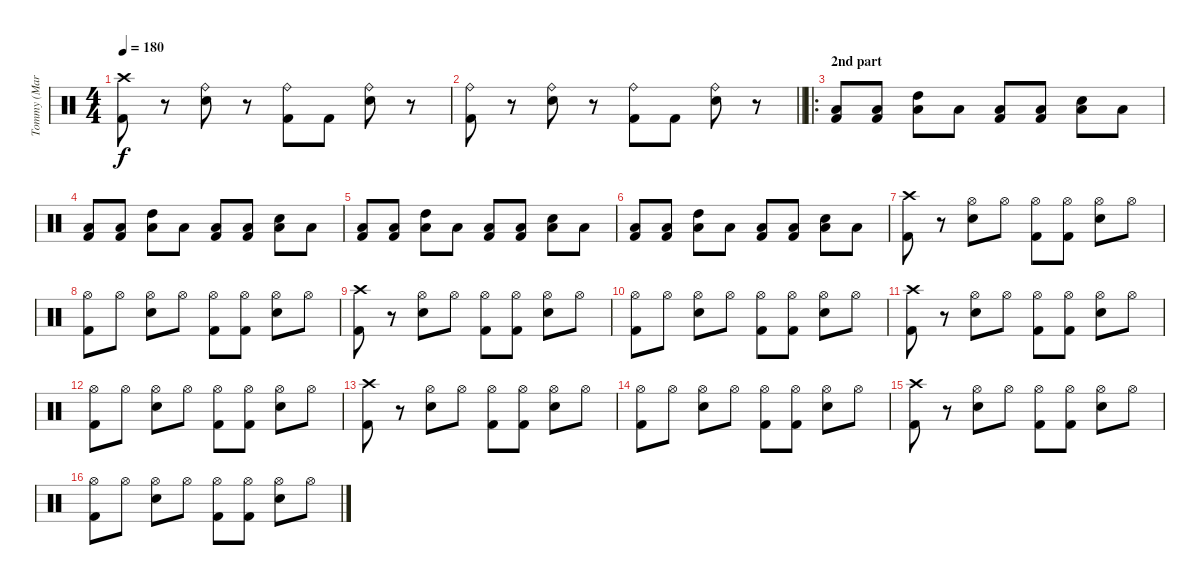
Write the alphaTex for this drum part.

\track ("Tommy (Marky)" "Tommy (Mar") {instrument percussion}
\staff {score}
\articulation defaults
\ts (4 4)
\tempo 180
\clef neutral
\ks c
("Crash high (hit)" "Kick (hit) 2").8{dy f} r.8 ("Ride (bell)" "Snare (hit) 2").8 r.8 ("Ride (bell)" "Kick (hit) 2").8 "Kick (hit) 2".8 ("Ride (bell)" "Snare (hit) 2").8 r.8 |
\barLineRight lightlight
("Ride (bell)" "Kick (hit) 2").8 r.8 ("Ride (bell)" "Snare (hit) 2").8 r.8 ("Ride (bell)" "Kick (hit) 2").8 "Kick (hit) 2".8 ("Ride (bell)" "Snare (hit) 2").8 r.8 |
\ro
\section ("" "2nd part")
("Low Floor Tom (hit)" "Kick (hit) 2").8 ("Low Floor Tom (hit)" "Kick (hit) 2").8 ("Low Floor Tom (hit)" "High Tom (hit)").8 "Low Floor Tom (hit)".8 ("Low Floor Tom (hit)" "Kick (hit) 2").8 ("Low Floor Tom (hit)" "Kick (hit) 2").8 ("Low Floor Tom (hit)" "Snare (hit) 2").8 "Low Floor Tom (hit)".8 |
("Low Floor Tom (hit)" "Kick (hit) 2").8 ("Low Floor Tom (hit)" "Kick (hit) 2").8 ("Low Floor Tom (hit)" "High Tom (hit)").8 "Low Floor Tom (hit)".8 ("Low Floor Tom (hit)" "Kick (hit) 2").8 ("Low Floor Tom (hit)" "Kick (hit) 2").8 ("Low Floor Tom (hit)" "Snare (hit) 2").8 "Low Floor Tom (hit)".8 |
("Low Floor Tom (hit)" "Kick (hit) 2").8 ("Low Floor Tom (hit)" "Kick (hit) 2").8 ("Low Floor Tom (hit)" "High Tom (hit)").8 "Low Floor Tom (hit)".8 ("Low Floor Tom (hit)" "Kick (hit) 2").8 ("Low Floor Tom (hit)" "Kick (hit) 2").8 ("Low Floor Tom (hit)" "Snare (hit) 2").8 "Low Floor Tom (hit)".8 |
("Low Floor Tom (hit)" "Kick (hit) 2").8 ("Low Floor Tom (hit)" "Kick (hit) 2").8 ("Low Floor Tom (hit)" "High Tom (hit)").8 "Low Floor Tom (hit)".8 ("Low Floor Tom (hit)" "Kick (hit) 2").8 ("Low Floor Tom (hit)" "Kick (hit) 2").8 ("Low Floor Tom (hit)" "Snare (hit) 2").8 "Low Floor Tom (hit)".8 |
("Crash high (hit)" "Kick (hit) 2").8 r.8 ("Hi-Hat (open)" "Snare (hit) 2").8 "Hi-Hat (open)".8 ("Hi-Hat (open)" "Kick (hit) 2").8 ("Hi-Hat (open)" "Kick (hit) 2").8 ("Hi-Hat (open)" "Snare (hit) 2").8 "Hi-Hat (open)".8 |
("Hi-Hat (open)" "Kick (hit) 2").8 "Hi-Hat (open)".8 ("Hi-Hat (open)" "Snare (hit) 2").8 "Hi-Hat (open)".8 ("Hi-Hat (open)" "Kick (hit) 2").8 ("Hi-Hat (open)" "Kick (hit) 2").8 ("Hi-Hat (open)" "Snare (hit) 2").8 "Hi-Hat (open)".8 |
("Crash high (hit)" "Kick (hit) 2").8 r.8 ("Hi-Hat (open)" "Snare (hit) 2").8 "Hi-Hat (open)".8 ("Hi-Hat (open)" "Kick (hit) 2").8 ("Hi-Hat (open)" "Kick (hit) 2").8 ("Hi-Hat (open)" "Snare (hit) 2").8 "Hi-Hat (open)".8 |
("Hi-Hat (open)" "Kick (hit) 2").8 "Hi-Hat (open)".8 ("Hi-Hat (open)" "Snare (hit) 2").8 "Hi-Hat (open)".8 ("Hi-Hat (open)" "Kick (hit) 2").8 ("Hi-Hat (open)" "Kick (hit) 2").8 ("Hi-Hat (open)" "Snare (hit) 2").8 "Hi-Hat (open)".8 |
("Crash high (hit)" "Kick (hit) 2").8 r.8 ("Hi-Hat (open)" "Snare (hit) 2").8 "Hi-Hat (open)".8 ("Hi-Hat (open)" "Kick (hit) 2").8 ("Hi-Hat (open)" "Kick (hit) 2").8 ("Hi-Hat (open)" "Snare (hit) 2").8 "Hi-Hat (open)".8 |
("Hi-Hat (open)" "Kick (hit) 2").8 "Hi-Hat (open)".8 ("Hi-Hat (open)" "Snare (hit) 2").8 "Hi-Hat (open)".8 ("Hi-Hat (open)" "Kick (hit) 2").8 ("Hi-Hat (open)" "Kick (hit) 2").8 ("Hi-Hat (open)" "Snare (hit) 2").8 "Hi-Hat (open)".8 |
("Crash high (hit)" "Kick (hit) 2").8 r.8 ("Hi-Hat (open)" "Snare (hit) 2").8 "Hi-Hat (open)".8 ("Hi-Hat (open)" "Kick (hit) 2").8 ("Hi-Hat (open)" "Kick (hit) 2").8 ("Hi-Hat (open)" "Snare (hit) 2").8 "Hi-Hat (open)".8 |
("Hi-Hat (open)" "Kick (hit) 2").8 "Hi-Hat (open)".8 ("Hi-Hat (open)" "Snare (hit) 2").8 "Hi-Hat (open)".8 ("Hi-Hat (open)" "Kick (hit) 2").8 ("Hi-Hat (open)" "Kick (hit) 2").8 ("Hi-Hat (open)" "Snare (hit) 2").8 "Hi-Hat (open)".8 |
("Crash high (hit)" "Kick (hit) 2").8 r.8 ("Hi-Hat (open)" "Snare (hit) 2").8 "Hi-Hat (open)".8 ("Hi-Hat (open)" "Kick (hit) 2").8 ("Hi-Hat (open)" "Kick (hit) 2").8 ("Hi-Hat (open)" "Snare (hit) 2").8 "Hi-Hat (open)".8 |
("Hi-Hat (open)" "Kick (hit) 2").8 "Hi-Hat (open)".8 ("Hi-Hat (open)" "Snare (hit) 2").8 "Hi-Hat (open)".8 ("Hi-Hat (open)" "Kick (hit) 2").8 ("Hi-Hat (open)" "Kick (hit) 2").8 ("Hi-Hat (open)" "Snare (hit) 2").8 "Hi-Hat (open)".8
